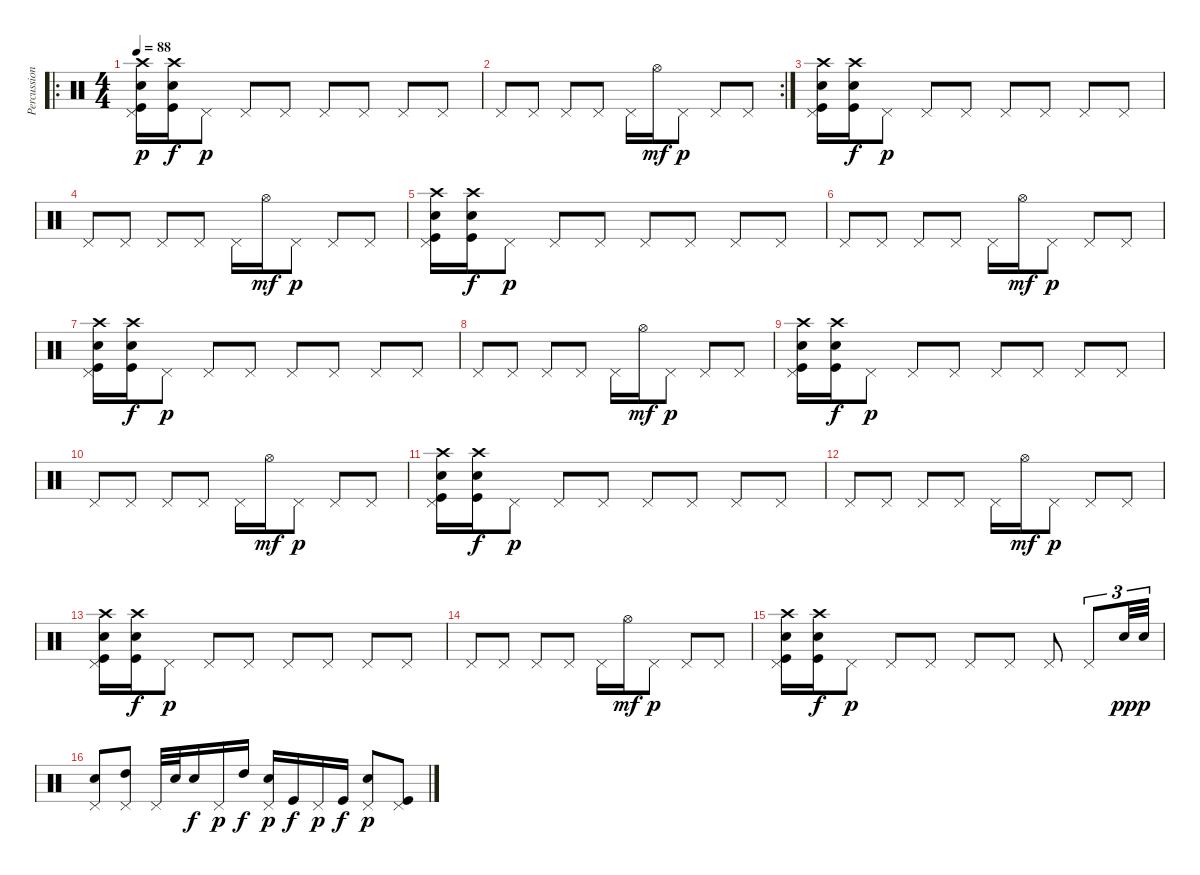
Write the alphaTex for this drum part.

\track ("Percussion" "Percussion") {instrument percussion}
\staff {score}
\articulation defaults
\ro
\ts (4 4)
\tempo 88
\clef neutral
\ks c
("Crash high (hit)" "Pedal Hi-Hat (hit)" "Snare (hit) 2" "Kick (hit)").16{dy p} ("Crash high (hit)" "Snare (hit) 2" "Kick (hit)").16{dy f} "Pedal Hi-Hat (hit)".8{dy p} "Pedal Hi-Hat (hit)".8 "Pedal Hi-Hat (hit)".8 "Pedal Hi-Hat (hit)".8 "Pedal Hi-Hat (hit)".8 "Pedal Hi-Hat (hit)".8 "Pedal Hi-Hat (hit)".8 |
\rc 2 "Pedal Hi-Hat (hit)".8 "Pedal Hi-Hat (hit)".8 "Pedal Hi-Hat (hit)".8 "Pedal Hi-Hat (hit)".8 "Pedal Hi-Hat (hit)".16 "Hi-Hat (open)".16{dy mf} "Pedal Hi-Hat (hit)".8{dy p} "Pedal Hi-Hat (hit)".8 "Pedal Hi-Hat (hit)".8
|
("Crash high (hit)" "Pedal Hi-Hat (hit)" "Snare (hit) 2" "Kick (hit)").16 ("Crash high (hit)" "Snare (hit) 2" "Kick (hit)").16{dy f} "Pedal Hi-Hat (hit)".8{dy p} "Pedal Hi-Hat (hit)".8 "Pedal Hi-Hat (hit)".8 "Pedal Hi-Hat (hit)".8 "Pedal Hi-Hat (hit)".8 "Pedal Hi-Hat (hit)".8 "Pedal Hi-Hat (hit)".8 |
"Pedal Hi-Hat (hit)".8 "Pedal Hi-Hat (hit)".8 "Pedal Hi-Hat (hit)".8 "Pedal Hi-Hat (hit)".8 "Pedal Hi-Hat (hit)".16 "Hi-Hat (open)".16{dy mf} "Pedal Hi-Hat (hit)".8{dy p} "Pedal Hi-Hat (hit)".8 "Pedal Hi-Hat (hit)".8 |
("Crash high (hit)" "Pedal Hi-Hat (hit)" "Snare (hit) 2" "Kick (hit)").16 ("Crash high (hit)" "Snare (hit) 2" "Kick (hit)").16{dy f} "Pedal Hi-Hat (hit)".8{dy p} "Pedal Hi-Hat (hit)".8 "Pedal Hi-Hat (hit)".8 "Pedal Hi-Hat (hit)".8 "Pedal Hi-Hat (hit)".8 "Pedal Hi-Hat (hit)".8 "Pedal Hi-Hat (hit)".8 |
"Pedal Hi-Hat (hit)".8 "Pedal Hi-Hat (hit)".8 "Pedal Hi-Hat (hit)".8 "Pedal Hi-Hat (hit)".8 "Pedal Hi-Hat (hit)".16 "Hi-Hat (open)".16{dy mf} "Pedal Hi-Hat (hit)".8{dy p} "Pedal Hi-Hat (hit)".8 "Pedal Hi-Hat (hit)".8 |
("Crash high (hit)" "Pedal Hi-Hat (hit)" "Snare (hit) 2" "Kick (hit)").16 ("Crash high (hit)" "Snare (hit) 2" "Kick (hit)").16{dy f} "Pedal Hi-Hat (hit)".8{dy p} "Pedal Hi-Hat (hit)".8 "Pedal Hi-Hat (hit)".8 "Pedal Hi-Hat (hit)".8 "Pedal Hi-Hat (hit)".8 "Pedal Hi-Hat (hit)".8 "Pedal Hi-Hat (hit)".8 |
"Pedal Hi-Hat (hit)".8 "Pedal Hi-Hat (hit)".8 "Pedal Hi-Hat (hit)".8 "Pedal Hi-Hat (hit)".8 "Pedal Hi-Hat (hit)".16 "Hi-Hat (open)".16{dy mf} "Pedal Hi-Hat (hit)".8{dy p} "Pedal Hi-Hat (hit)".8 "Pedal Hi-Hat (hit)".8 |
("Crash high (hit)" "Pedal Hi-Hat (hit)" "Snare (hit) 2" "Kick (hit)").16 ("Crash high (hit)" "Snare (hit) 2" "Kick (hit)").16{dy f} "Pedal Hi-Hat (hit)".8{dy p} "Pedal Hi-Hat (hit)".8 "Pedal Hi-Hat (hit)".8 "Pedal Hi-Hat (hit)".8 "Pedal Hi-Hat (hit)".8 "Pedal Hi-Hat (hit)".8 "Pedal Hi-Hat (hit)".8 |
"Pedal Hi-Hat (hit)".8 "Pedal Hi-Hat (hit)".8 "Pedal Hi-Hat (hit)".8 "Pedal Hi-Hat (hit)".8 "Pedal Hi-Hat (hit)".16 "Hi-Hat (open)".16{dy mf} "Pedal Hi-Hat (hit)".8{dy p} "Pedal Hi-Hat (hit)".8 "Pedal Hi-Hat (hit)".8 |
("Crash high (hit)" "Pedal Hi-Hat (hit)" "Snare (hit) 2" "Kick (hit)").16 ("Crash high (hit)" "Snare (hit) 2" "Kick (hit)").16{dy f} "Pedal Hi-Hat (hit)".8{dy p} "Pedal Hi-Hat (hit)".8 "Pedal Hi-Hat (hit)".8 "Pedal Hi-Hat (hit)".8 "Pedal Hi-Hat (hit)".8 "Pedal Hi-Hat (hit)".8 "Pedal Hi-Hat (hit)".8 |
"Pedal Hi-Hat (hit)".8 "Pedal Hi-Hat (hit)".8 "Pedal Hi-Hat (hit)".8 "Pedal Hi-Hat (hit)".8 "Pedal Hi-Hat (hit)".16 "Hi-Hat (open)".16{dy mf} "Pedal Hi-Hat (hit)".8{dy p} "Pedal Hi-Hat (hit)".8 "Pedal Hi-Hat (hit)".8 |
("Crash high (hit)" "Pedal Hi-Hat (hit)" "Snare (hit) 2" "Kick (hit)").16 ("Crash high (hit)" "Snare (hit) 2" "Kick (hit)").16{dy f} "Pedal Hi-Hat (hit)".8{dy p} "Pedal Hi-Hat (hit)".8 "Pedal Hi-Hat (hit)".8 "Pedal Hi-Hat (hit)".8 "Pedal Hi-Hat (hit)".8 "Pedal Hi-Hat (hit)".8 "Pedal Hi-Hat (hit)".8 |
"Pedal Hi-Hat (hit)".8 "Pedal Hi-Hat (hit)".8 "Pedal Hi-Hat (hit)".8 "Pedal Hi-Hat (hit)".8 "Pedal Hi-Hat (hit)".16 "Hi-Hat (open)".16{dy mf} "Pedal Hi-Hat (hit)".8{dy p} "Pedal Hi-Hat (hit)".8 "Pedal Hi-Hat (hit)".8 |
("Crash high (hit)" "Pedal Hi-Hat (hit)" "Snare (hit) 2" "Kick (hit)").16 ("Crash high (hit)" "Snare (hit) 2" "Kick (hit)").16{dy f} "Pedal Hi-Hat (hit)".8{dy p} "Pedal Hi-Hat (hit)".8 "Pedal Hi-Hat (hit)".8 "Pedal Hi-Hat (hit)".8 "Pedal Hi-Hat (hit)".8 "Pedal Hi-Hat (hit)".8 "Pedal Hi-Hat (hit)".8{tu (3 2)} "Snare (hit) 2".32{tu (3 2) dy pp} "Snare (hit) 2".32{tu (3 2) dy p} |
("Pedal Hi-Hat (hit)" "Snare (hit) 2").8 ("Pedal Hi-Hat (hit)" "High Tom (hit)").8 "Pedal Hi-Hat (hit)".32 "Snare (hit) 2".32 "Snare (hit) 2".16{dy f} "Pedal Hi-Hat (hit)".16{dy p} "High Tom (hit)".16{dy f} ("Pedal Hi-Hat (hit)" "Snare (hit) 2").16{dy p} "Kick (hit)".16{dy f} "Pedal Hi-Hat (hit)".16{dy p} "Kick (hit)".16{dy f} ("Pedal Hi-Hat (hit)" "Snare (hit) 2").8{dy p} ("Pedal Hi-Hat (hit)" "Kick (hit)").8
